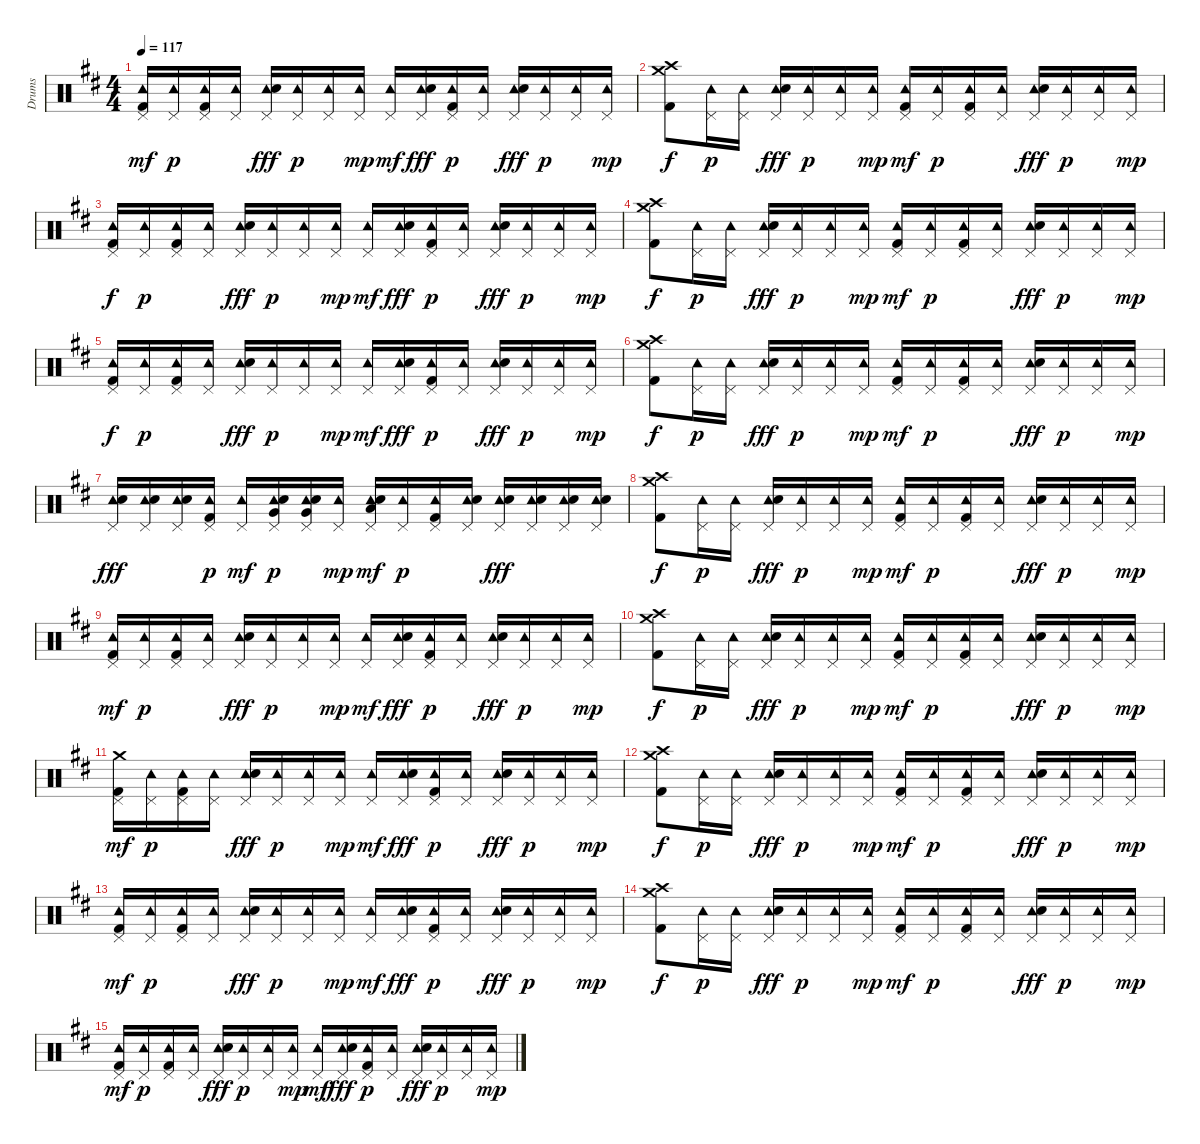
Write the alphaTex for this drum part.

\track ("Drums" "Drums") {instrument percussion}
\staff {score}
\articulation defaults
\ts (4 4)
\tempo 117
\clef neutral
\ks d
("Pedal Hi-Hat (hit)" "Tambourine (hit)" "Kick (hit) 2").16{dy mf} ("Pedal Hi-Hat (hit)" "Tambourine (hit)").16{dy p} ("Pedal Hi-Hat (hit)" "Tambourine (hit)" "Kick (hit) 2").16 ("Pedal Hi-Hat (hit)" "Tambourine (hit)").16 ("Tambourine (hit)" "Pedal Hi-Hat (hit)" "Electric Snare (hit)").16{dy fff} ("Pedal Hi-Hat (hit)" "Tambourine (hit)").16{dy p} ("Pedal Hi-Hat (hit)" "Tambourine (hit)").16 ("Tambourine (hit)" "Pedal Hi-Hat (hit)").16{dy mp} ("Tambourine (hit)" "Pedal Hi-Hat (hit)").16{dy mf} ("Pedal Hi-Hat (hit)" "Tambourine (hit)" "Electric Snare (hit)").16{dy fff} ("Pedal Hi-Hat (hit)" "Tambourine (hit)" "Kick (hit) 2").16{dy p} ("Tambourine (hit)" "Pedal Hi-Hat (hit)").16 ("Tambourine (hit)" "Pedal Hi-Hat (hit)" "Electric Snare (hit)").16{dy fff} ("Tambourine (hit)" "Pedal Hi-Hat (hit)").16{dy p} ("Tambourine (hit)" "Pedal Hi-Hat (hit)").16 ("Pedal Hi-Hat (hit)" "Tambourine (hit)").16{dy mp} |
("Crash medium (hit)" "Crash high (hit)" "Kick (hit) 2").8{dy f} ("Tambourine (hit)" "Pedal Hi-Hat (hit)").16{dy p} ("Tambourine (hit)" "Pedal Hi-Hat (hit)").16 ("Pedal Hi-Hat (hit)" "Tambourine (hit)" "Electric Snare (hit)").16{dy fff} ("Pedal Hi-Hat (hit)" "Tambourine (hit)").16{dy p} ("Pedal Hi-Hat (hit)" "Tambourine (hit)").16 ("Tambourine (hit)" "Pedal Hi-Hat (hit)").16{dy mp} ("Pedal Hi-Hat (hit)" "Tambourine (hit)" "Kick (hit) 2").16{dy mf} ("Pedal Hi-Hat (hit)" "Tambourine (hit)").16{dy p} ("Tambourine (hit)" "Pedal Hi-Hat (hit)" "Kick (hit) 2").16 ("Pedal Hi-Hat (hit)" "Tambourine (hit)").16 ("Pedal Hi-Hat (hit)" "Tambourine (hit)" "Electric Snare (hit)").16{dy fff} ("Tambourine (hit)" "Pedal Hi-Hat (hit)").16{dy p} ("Pedal Hi-Hat (hit)" "Tambourine (hit)").16 ("Pedal Hi-Hat (hit)" "Tambourine (hit)").16{dy mp} |
("Pedal Hi-Hat (hit)" "Tambourine (hit)" "Kick (hit) 2").16{dy f} ("Pedal Hi-Hat (hit)" "Tambourine (hit)").16{dy p} ("Pedal Hi-Hat (hit)" "Tambourine (hit)" "Kick (hit) 2").16 ("Pedal Hi-Hat (hit)" "Tambourine (hit)").16 ("Tambourine (hit)" "Pedal Hi-Hat (hit)" "Electric Snare (hit)").16{dy fff} ("Tambourine (hit)" "Pedal Hi-Hat (hit)").16{dy p} ("Tambourine (hit)" "Pedal Hi-Hat (hit)").16 ("Tambourine (hit)" "Pedal Hi-Hat (hit)").16{dy mp} ("Tambourine (hit)" "Pedal Hi-Hat (hit)").16{dy mf} ("Pedal Hi-Hat (hit)" "Tambourine (hit)" "Electric Snare (hit)").16{dy fff} ("Tambourine (hit)" "Pedal Hi-Hat (hit)" "Kick (hit) 2").16{dy p} ("Tambourine (hit)" "Pedal Hi-Hat (hit)").16 ("Pedal Hi-Hat (hit)" "Tambourine (hit)" "Electric Snare (hit)").16{dy fff} ("Tambourine (hit)" "Pedal Hi-Hat (hit)").16{dy p} ("Tambourine (hit)" "Pedal Hi-Hat (hit)").16 ("Tambourine (hit)" "Pedal Hi-Hat (hit)").16{dy mp} |
("Crash medium (hit)" "Crash high (hit)" "Kick (hit) 2").8{dy f} ("Tambourine (hit)" "Pedal Hi-Hat (hit)").16{dy p} ("Pedal Hi-Hat (hit)" "Tambourine (hit)").16 ("Tambourine (hit)" "Pedal Hi-Hat (hit)" "Electric Snare (hit)").16{dy fff} ("Tambourine (hit)" "Pedal Hi-Hat (hit)").16{dy p} ("Tambourine (hit)" "Pedal Hi-Hat (hit)").16 ("Pedal Hi-Hat (hit)" "Tambourine (hit)").16{dy mp} ("Pedal Hi-Hat (hit)" "Tambourine (hit)" "Kick (hit) 2").16{dy mf} ("Tambourine (hit)" "Pedal Hi-Hat (hit)").16{dy p} ("Pedal Hi-Hat (hit)" "Tambourine (hit)" "Kick (hit) 2").16 ("Pedal Hi-Hat (hit)" "Tambourine (hit)").16 ("Tambourine (hit)" "Pedal Hi-Hat (hit)" "Electric Snare (hit)").16{dy fff} ("Pedal Hi-Hat (hit)" "Tambourine (hit)").16{dy p} ("Tambourine (hit)" "Pedal Hi-Hat (hit)").16 ("Tambourine (hit)" "Pedal Hi-Hat (hit)").16{dy mp} |
("Pedal Hi-Hat (hit)" "Tambourine (hit)" "Kick (hit) 2").16{dy f} ("Pedal Hi-Hat (hit)" "Tambourine (hit)").16{dy p} ("Pedal Hi-Hat (hit)" "Tambourine (hit)" "Kick (hit) 2").16 ("Pedal Hi-Hat (hit)" "Tambourine (hit)").16 ("Pedal Hi-Hat (hit)" "Tambourine (hit)" "Electric Snare (hit)").16{dy fff} ("Tambourine (hit)" "Pedal Hi-Hat (hit)").16{dy p} ("Tambourine (hit)" "Pedal Hi-Hat (hit)").16 ("Pedal Hi-Hat (hit)" "Tambourine (hit)").16{dy mp} ("Pedal Hi-Hat (hit)" "Tambourine (hit)").16{dy mf} ("Tambourine (hit)" "Pedal Hi-Hat (hit)" "Electric Snare (hit)").16{dy fff} ("Pedal Hi-Hat (hit)" "Tambourine (hit)" "Kick (hit) 2").16{dy p} ("Pedal Hi-Hat (hit)" "Tambourine (hit)").16 ("Tambourine (hit)" "Pedal Hi-Hat (hit)" "Electric Snare (hit)").16{dy fff} ("Pedal Hi-Hat (hit)" "Tambourine (hit)").16{dy p} ("Tambourine (hit)" "Pedal Hi-Hat (hit)").16 ("Pedal Hi-Hat (hit)" "Tambourine (hit)").16{dy mp} |
("Crash medium (hit)" "Crash high (hit)" "Kick (hit) 2").8{dy f} ("Pedal Hi-Hat (hit)" "Tambourine (hit)").16{dy p} ("Pedal Hi-Hat (hit)" "Tambourine (hit)").16 ("Tambourine (hit)" "Pedal Hi-Hat (hit)" "Electric Snare (hit)").16{dy fff} ("Pedal Hi-Hat (hit)" "Tambourine (hit)").16{dy p} ("Pedal Hi-Hat (hit)" "Tambourine (hit)").16 ("Pedal Hi-Hat (hit)" "Tambourine (hit)").16{dy mp} ("Tambourine (hit)" "Pedal Hi-Hat (hit)" "Kick (hit) 2").16{dy mf} ("Tambourine (hit)" "Pedal Hi-Hat (hit)").16{dy p} ("Pedal Hi-Hat (hit)" "Tambourine (hit)" "Kick (hit) 2").16 ("Pedal Hi-Hat (hit)" "Tambourine (hit)").16 ("Tambourine (hit)" "Pedal Hi-Hat (hit)" "Electric Snare (hit)").16{dy fff} ("Pedal Hi-Hat (hit)" "Tambourine (hit)").16{dy p} ("Tambourine (hit)" "Pedal Hi-Hat (hit)").16 ("Tambourine (hit)" "Pedal Hi-Hat (hit)").16{dy mp} |
("Pedal Hi-Hat (hit)" "Tambourine (hit)" "Electric Snare (hit)").16{dy fff} ("Tambourine (hit)" "Pedal Hi-Hat (hit)" "Electric Snare (hit)").16 ("Pedal Hi-Hat (hit)" "Tambourine (hit)" "Electric Snare (hit)").16 ("Pedal Hi-Hat (hit)" "Tambourine (hit)" "Kick (hit) 2").16{dy p} ("Tambourine (hit)" "Pedal Hi-Hat (hit)").16{dy mf} ("Tambourine (hit)" "Pedal Hi-Hat (hit)" "Snare (hit) 2" "Very Low Tom (hit)").16{dy p} ("Pedal Hi-Hat (hit)" "Tambourine (hit)" "Snare (hit) 2" "Very Low Tom (hit)").16 ("Tambourine (hit)" "Pedal Hi-Hat (hit)").16{dy mp} ("Pedal Hi-Hat (hit)" "Tambourine (hit)" "Snare (hit) 2" "Low Floor Tom (hit)").16{dy mf} ("Pedal Hi-Hat (hit)" "Tambourine (hit)").16{dy p} ("Pedal Hi-Hat (hit)" "Tambourine (hit)" "Kick (hit) 2").16 ("Pedal Hi-Hat (hit)" "Tambourine (hit)" "Snare (hit) 2").16 ("Pedal Hi-Hat (hit)" "Tambourine (hit)" "Electric Snare (hit)").16{dy fff} ("Tambourine (hit)" "Pedal Hi-Hat (hit)" "Electric Snare (hit)").16 ("Tambourine (hit)" "Pedal Hi-Hat (hit)" "Electric Snare (hit)").16 ("Tambourine (hit)" "Pedal Hi-Hat (hit)" "Electric Snare (hit)").16 |
("Crash high (hit)" "Crash medium (hit)" "Kick (hit) 2").8{dy f volume 8} ("Tambourine (hit)" "Pedal Hi-Hat (hit)").16{dy p} ("Pedal Hi-Hat (hit)" "Tambourine (hit)").16 ("Pedal Hi-Hat (hit)" "Tambourine (hit)" "Electric Snare (hit)").16{dy fff} ("Pedal Hi-Hat (hit)" "Tambourine (hit)").16{dy p} ("Tambourine (hit)" "Pedal Hi-Hat (hit)").16 ("Pedal Hi-Hat (hit)" "Tambourine (hit)").16{dy mp} ("Pedal Hi-Hat (hit)" "Tambourine (hit)" "Kick (hit) 2").16{dy mf} ("Pedal Hi-Hat (hit)" "Tambourine (hit)").16{dy p} ("Pedal Hi-Hat (hit)" "Tambourine (hit)" "Kick (hit) 2").16 ("Tambourine (hit)" "Pedal Hi-Hat (hit)").16 ("Pedal Hi-Hat (hit)" "Tambourine (hit)" "Electric Snare (hit)").16{dy fff} ("Pedal Hi-Hat (hit)" "Tambourine (hit)").16{dy p} ("Pedal Hi-Hat (hit)" "Tambourine (hit)").16 ("Pedal Hi-Hat (hit)" "Tambourine (hit)").16{dy mp} |
("Tambourine (hit)" "Pedal Hi-Hat (hit)" "Kick (hit) 2").16{dy mf} ("Pedal Hi-Hat (hit)" "Tambourine (hit)").16{dy p} ("Tambourine (hit)" "Pedal Hi-Hat (hit)" "Kick (hit) 2").16 ("Pedal Hi-Hat (hit)" "Tambourine (hit)").16 ("Pedal Hi-Hat (hit)" "Tambourine (hit)" "Electric Snare (hit)").16{dy fff} ("Tambourine (hit)" "Pedal Hi-Hat (hit)").16{dy p} ("Tambourine (hit)" "Pedal Hi-Hat (hit)").16 ("Tambourine (hit)" "Pedal Hi-Hat (hit)").16{dy mp} ("Pedal Hi-Hat (hit)" "Tambourine (hit)").16{dy mf} ("Tambourine (hit)" "Pedal Hi-Hat (hit)" "Electric Snare (hit)").16{dy fff} ("Tambourine (hit)" "Pedal Hi-Hat (hit)" "Kick (hit) 2").16{dy p} ("Tambourine (hit)" "Pedal Hi-Hat (hit)").16 ("Pedal Hi-Hat (hit)" "Tambourine (hit)" "Electric Snare (hit)").16{dy fff} ("Pedal Hi-Hat (hit)" "Tambourine (hit)").16{dy p} ("Pedal Hi-Hat (hit)" "Tambourine (hit)").16 ("Pedal Hi-Hat (hit)" "Tambourine (hit)").16{dy mp} |
("Crash medium (hit)" "Crash high (hit)" "Kick (hit) 2").8{dy f} ("Pedal Hi-Hat (hit)" "Tambourine (hit)").16{dy p} ("Pedal Hi-Hat (hit)" "Tambourine (hit)").16 ("Pedal Hi-Hat (hit)" "Tambourine (hit)" "Electric Snare (hit)").16{dy fff} ("Tambourine (hit)" "Pedal Hi-Hat (hit)").16{dy p} ("Tambourine (hit)" "Pedal Hi-Hat (hit)").16 ("Tambourine (hit)" "Pedal Hi-Hat (hit)").16{dy mp} ("Pedal Hi-Hat (hit)" "Tambourine (hit)" "Kick (hit) 2").16{dy mf} ("Tambourine (hit)" "Pedal Hi-Hat (hit)").16{dy p} ("Pedal Hi-Hat (hit)" "Tambourine (hit)" "Kick (hit) 2").16 ("Pedal Hi-Hat (hit)" "Tambourine (hit)").16 ("Pedal Hi-Hat (hit)" "Tambourine (hit)" "Electric Snare (hit)").16{dy fff} ("Tambourine (hit)" "Pedal Hi-Hat (hit)").16{dy p} ("Pedal Hi-Hat (hit)" "Tambourine (hit)").16 ("Tambourine (hit)" "Pedal Hi-Hat (hit)").16{dy mp} |
("Crash medium (hit)" "Pedal Hi-Hat (hit)" "Kick (hit) 2").16{dy mf} ("Tambourine (hit)" "Pedal Hi-Hat (hit)").16{dy p} ("Pedal Hi-Hat (hit)" "Tambourine (hit)" "Kick (hit) 2").16 ("Pedal Hi-Hat (hit)" "Tambourine (hit)").16 ("Pedal Hi-Hat (hit)" "Tambourine (hit)" "Electric Snare (hit)").16{dy fff} ("Pedal Hi-Hat (hit)" "Tambourine (hit)").16{dy p} ("Pedal Hi-Hat (hit)" "Tambourine (hit)").16 ("Pedal Hi-Hat (hit)" "Tambourine (hit)").16{dy mp} ("Tambourine (hit)" "Pedal Hi-Hat (hit)").16{dy mf} ("Tambourine (hit)" "Pedal Hi-Hat (hit)" "Electric Snare (hit)").16{dy fff} ("Tambourine (hit)" "Pedal Hi-Hat (hit)" "Kick (hit) 2").16{dy p} ("Tambourine (hit)" "Pedal Hi-Hat (hit)").16 ("Pedal Hi-Hat (hit)" "Tambourine (hit)" "Electric Snare (hit)").16{dy fff} ("Tambourine (hit)" "Pedal Hi-Hat (hit)").16{dy p} ("Tambourine (hit)" "Pedal Hi-Hat (hit)").16 ("Pedal Hi-Hat (hit)" "Tambourine (hit)").16{dy mp} |
("Crash medium (hit)" "Crash high (hit)" "Kick (hit) 2").8{dy f volume 0} ("Tambourine (hit)" "Pedal Hi-Hat (hit)").16{dy p} ("Pedal Hi-Hat (hit)" "Tambourine (hit)").16 ("Tambourine (hit)" "Pedal Hi-Hat (hit)" "Electric Snare (hit)").16{dy fff} ("Pedal Hi-Hat (hit)" "Tambourine (hit)").16{dy p} ("Tambourine (hit)" "Pedal Hi-Hat (hit)").16 ("Tambourine (hit)" "Pedal Hi-Hat (hit)").16{dy mp} ("Pedal Hi-Hat (hit)" "Tambourine (hit)" "Kick (hit) 2").16{dy mf} ("Pedal Hi-Hat (hit)" "Tambourine (hit)").16{dy p} ("Pedal Hi-Hat (hit)" "Tambourine (hit)" "Kick (hit) 2").16 ("Tambourine (hit)" "Pedal Hi-Hat (hit)").16 ("Tambourine (hit)" "Pedal Hi-Hat (hit)" "Electric Snare (hit)").16{dy fff} ("Tambourine (hit)" "Pedal Hi-Hat (hit)").16{dy p} ("Pedal Hi-Hat (hit)" "Tambourine (hit)").16 ("Tambourine (hit)" "Pedal Hi-Hat (hit)").16{dy mp} |
("Pedal Hi-Hat (hit)" "Tambourine (hit)" "Kick (hit) 2").16{dy mf} ("Tambourine (hit)" "Pedal Hi-Hat (hit)").16{dy p} ("Tambourine (hit)" "Pedal Hi-Hat (hit)" "Kick (hit) 2").16 ("Tambourine (hit)" "Pedal Hi-Hat (hit)").16 ("Pedal Hi-Hat (hit)" "Tambourine (hit)" "Electric Snare (hit)").16{dy fff} ("Pedal Hi-Hat (hit)" "Tambourine (hit)").16{dy p} ("Tambourine (hit)" "Pedal Hi-Hat (hit)").16 ("Pedal Hi-Hat (hit)" "Tambourine (hit)").16{dy mp} ("Pedal Hi-Hat (hit)" "Tambourine (hit)").16{dy mf} ("Tambourine (hit)" "Pedal Hi-Hat (hit)" "Electric Snare (hit)").16{dy fff} ("Pedal Hi-Hat (hit)" "Tambourine (hit)" "Kick (hit) 2").16{dy p} ("Tambourine (hit)" "Pedal Hi-Hat (hit)").16 ("Tambourine (hit)" "Pedal Hi-Hat (hit)" "Electric Snare (hit)").16{dy fff} ("Tambourine (hit)" "Pedal Hi-Hat (hit)").16{dy p} ("Tambourine (hit)" "Pedal Hi-Hat (hit)").16 ("Pedal Hi-Hat (hit)" "Tambourine (hit)").16{dy mp} |
("Crash medium (hit)" "Crash high (hit)" "Kick (hit) 2").8{dy f} ("Tambourine (hit)" "Pedal Hi-Hat (hit)").16{dy p} ("Pedal Hi-Hat (hit)" "Tambourine (hit)").16 ("Tambourine (hit)" "Pedal Hi-Hat (hit)" "Electric Snare (hit)").16{dy fff} ("Tambourine (hit)" "Pedal Hi-Hat (hit)").16{dy p} ("Tambourine (hit)" "Pedal Hi-Hat (hit)").16 ("Pedal Hi-Hat (hit)" "Tambourine (hit)").16{dy mp} ("Tambourine (hit)" "Pedal Hi-Hat (hit)" "Kick (hit) 2").16{dy mf} ("Pedal Hi-Hat (hit)" "Tambourine (hit)").16{dy p} ("Tambourine (hit)" "Pedal Hi-Hat (hit)" "Kick (hit) 2").16 ("Tambourine (hit)" "Pedal Hi-Hat (hit)").16 ("Pedal Hi-Hat (hit)" "Tambourine (hit)" "Electric Snare (hit)").16{dy fff} ("Pedal Hi-Hat (hit)" "Tambourine (hit)").16{dy p} ("Tambourine (hit)" "Pedal Hi-Hat (hit)").16 ("Tambourine (hit)" "Pedal Hi-Hat (hit)").16{dy mp} |
("Tambourine (hit)" "Pedal Hi-Hat (hit)" "Kick (hit) 2").16{dy mf} ("Pedal Hi-Hat (hit)" "Tambourine (hit)").16{dy p} ("Pedal Hi-Hat (hit)" "Tambourine (hit)" "Kick (hit) 2").16 ("Pedal Hi-Hat (hit)" "Tambourine (hit)").16 ("Pedal Hi-Hat (hit)" "Tambourine (hit)" "Electric Snare (hit)").16{dy fff} ("Pedal Hi-Hat (hit)" "Tambourine (hit)").16{dy p} ("Tambourine (hit)" "Pedal Hi-Hat (hit)").16 ("Tambourine (hit)" "Pedal Hi-Hat (hit)").16{dy mp} ("Pedal Hi-Hat (hit)" "Tambourine (hit)").16{dy mf} ("Tambourine (hit)" "Pedal Hi-Hat (hit)" "Electric Snare (hit)").16{dy fff} ("Tambourine (hit)" "Pedal Hi-Hat (hit)" "Kick (hit) 2").16{dy p} ("Tambourine (hit)" "Pedal Hi-Hat (hit)").16 ("Pedal Hi-Hat (hit)" "Tambourine (hit)" "Electric Snare (hit)").16{dy fff} ("Tambourine (hit)" "Pedal Hi-Hat (hit)").16{dy p} ("Pedal Hi-Hat (hit)" "Tambourine (hit)").16 ("Tambourine (hit)" "Pedal Hi-Hat (hit)").16{dy mp}
